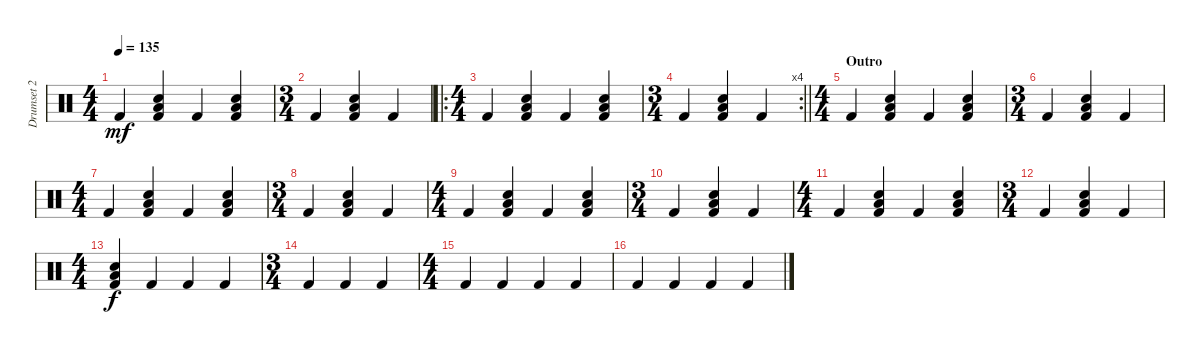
\track ("Drumset 2" "Drumset 2") {instrument percussion}
\staff {score}
\articulation defaults
\ts (4 4)
\tempo 135
\clef neutral
\ks c "Kick (hit) 2".4{dy mf}
("Low Floor Tom (hit)" "Electric Snare (hit)" "Kick (hit) 2").4 "Kick (hit) 2".4 ("Low Floor Tom (hit)" "Electric Snare (hit)" "Kick (hit) 2").4 |
\ts (3 4)
"Kick (hit) 2".4 ("Low Floor Tom (hit)" "Electric Snare (hit)" "Kick (hit) 2").4 "Kick (hit) 2".4 |
\ro
\ts (4 4)
"Kick (hit) 2".4 ("Low Floor Tom (hit)" "Electric Snare (hit)" "Kick (hit) 2").4 "Kick (hit) 2".4 ("Low Floor Tom (hit)" "Electric Snare (hit)" "Kick (hit) 2").4 |
\rc 4
\ts (3 4)
\barLineRight lightlight "Kick (hit) 2".4
("Low Floor Tom (hit)" "Electric Snare (hit)" "Kick (hit) 2").4 "Kick (hit) 2".4 |
\ts (4 4)
\section ("" "Outro")
"Kick (hit) 2".4 ("Low Floor Tom (hit)" "Electric Snare (hit)" "Kick (hit) 2").4 "Kick (hit) 2".4 ("Low Floor Tom (hit)" "Electric Snare (hit)" "Kick (hit) 2").4 |
\ts (3 4)
"Kick (hit) 2".4 ("Low Floor Tom (hit)" "Electric Snare (hit)" "Kick (hit) 2").4 "Kick (hit) 2".4 |
\ts (4 4)
"Kick (hit) 2".4 ("Low Floor Tom (hit)" "Electric Snare (hit)" "Kick (hit) 2").4 "Kick (hit) 2".4 ("Low Floor Tom (hit)" "Electric Snare (hit)" "Kick (hit) 2").4 |
\ts (3 4)
"Kick (hit) 2".4 ("Low Floor Tom (hit)" "Electric Snare (hit)" "Kick (hit) 2").4 "Kick (hit) 2".4 |
\ts (4 4)
"Kick (hit) 2".4 ("Low Floor Tom (hit)" "Electric Snare (hit)" "Kick (hit) 2").4 "Kick (hit) 2".4 ("Low Floor Tom (hit)" "Electric Snare (hit)" "Kick (hit) 2").4 |
\ts (3 4)
"Kick (hit) 2".4 ("Low Floor Tom (hit)" "Electric Snare (hit)" "Kick (hit) 2").4 "Kick (hit) 2".4 |
\ts (4 4)
"Kick (hit) 2".4 ("Low Floor Tom (hit)" "Electric Snare (hit)" "Kick (hit) 2").4 "Kick (hit) 2".4 ("Low Floor Tom (hit)" "Electric Snare (hit)" "Kick (hit) 2").4 |
\ts (3 4)
"Kick (hit) 2".4 ("Low Floor Tom (hit)" "Electric Snare (hit)" "Kick (hit) 2").4 "Kick (hit) 2".4 |
\ts (4 4)
("Low Floor Tom (hit)" "Electric Snare (hit)" "Kick (hit) 2").4{dy f} "Kick (hit) 2".4 "Kick (hit) 2".4 "Kick (hit) 2".4 |
\ts (3 4)
"Kick (hit) 2".4 "Kick (hit) 2".4 "Kick (hit) 2".4 |
\ts (4 4)
"Kick (hit) 2".4 "Kick (hit) 2".4 "Kick (hit) 2".4 "Kick (hit) 2".4 |
"Kick (hit) 2".4 "Kick (hit) 2".4 "Kick (hit) 2".4 "Kick (hit) 2".4
